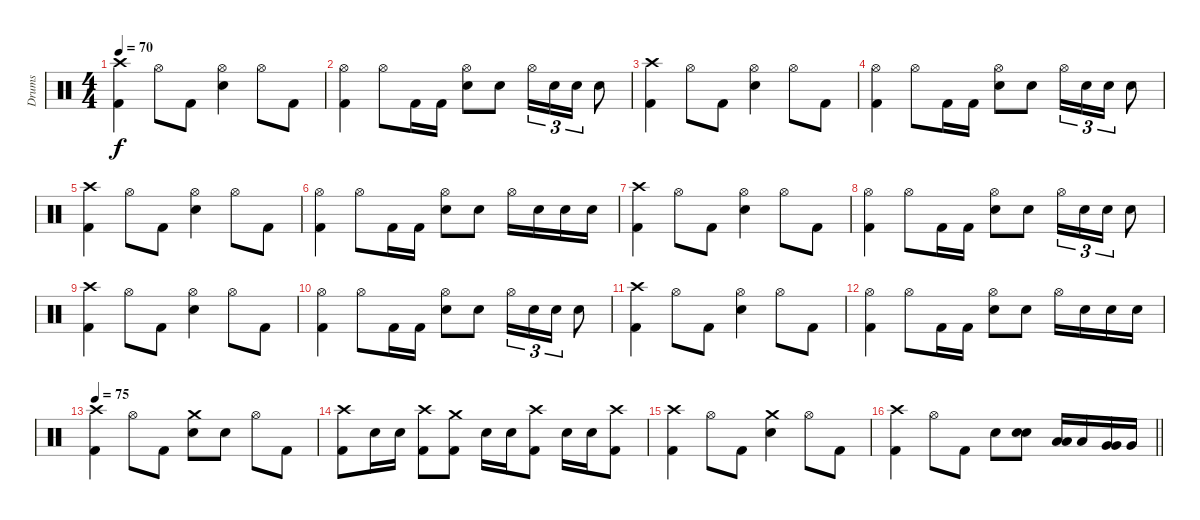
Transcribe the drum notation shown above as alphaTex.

\track ("Drums" "Drums") {instrument percussion}
\staff {score}
\articulation defaults
\ts (4 4)
\tempo 70
\clef neutral
\ks c
("Crash high (hit)" "Kick (hit) 2").4{dy f} "Hi-Hat (open)".8 "Kick (hit) 2".8 ("Hi-Hat (open)" "Electric Snare (hit)").4 "Hi-Hat (open)".8 "Kick (hit) 2".8 |
("Hi-Hat (open)" "Kick (hit) 2").4 "Hi-Hat (open)".8 "Kick (hit) 2".16 "Kick (hit) 2".16 ("Hi-Hat (open)" "Electric Snare (hit)").8 "Electric Snare (hit)".8 "Hi-Hat (open)".16{tu (3 2)} "Electric Snare (hit)".16{tu (3 2)} "Electric Snare (hit)".16{tu (3 2)} "Electric Snare (hit)".8 |
("Crash high (hit)" "Kick (hit) 2").4 "Hi-Hat (open)".8 "Kick (hit) 2".8 ("Hi-Hat (open)" "Electric Snare (hit)").4 "Hi-Hat (open)".8 "Kick (hit) 2".8 |
("Hi-Hat (open)" "Kick (hit) 2").4 "Hi-Hat (open)".8 "Kick (hit) 2".16 "Kick (hit) 2".16 ("Hi-Hat (open)" "Electric Snare (hit)").8 "Electric Snare (hit)".8 "Hi-Hat (open)".16{tu (3 2)} "Electric Snare (hit)".16{tu (3 2)} "Electric Snare (hit)".16{tu (3 2)} "Electric Snare (hit)".8 |
("Crash high (hit)" "Kick (hit) 2").4 "Hi-Hat (open)".8 "Kick (hit) 2".8 ("Hi-Hat (open)" "Electric Snare (hit)").4 "Hi-Hat (open)".8 "Kick (hit) 2".8 |
("Hi-Hat (open)" "Kick (hit) 2").4 "Hi-Hat (open)".8 "Kick (hit) 2".16 "Kick (hit) 2".16 ("Hi-Hat (open)" "Electric Snare (hit)").8 "Electric Snare (hit)".8 "Hi-Hat (open)".16 "Electric Snare (hit)".16 "Electric Snare (hit)".16 "Electric Snare (hit)".16 |
("Crash high (hit)" "Kick (hit) 2").4 "Hi-Hat (open)".8 "Kick (hit) 2".8 ("Hi-Hat (open)" "Electric Snare (hit)").4 "Hi-Hat (open)".8 "Kick (hit) 2".8 |
("Hi-Hat (open)" "Kick (hit) 2").4 "Hi-Hat (open)".8 "Kick (hit) 2".16 "Kick (hit) 2".16 ("Hi-Hat (open)" "Electric Snare (hit)").8 "Electric Snare (hit)".8 "Hi-Hat (open)".16{tu (3 2)} "Electric Snare (hit)".16{tu (3 2)} "Electric Snare (hit)".16{tu (3 2)} "Electric Snare (hit)".8 |
("Crash high (hit)" "Kick (hit) 2").4 "Hi-Hat (open)".8 "Kick (hit) 2".8 ("Hi-Hat (open)" "Electric Snare (hit)").4 "Hi-Hat (open)".8 "Kick (hit) 2".8 |
("Hi-Hat (open)" "Kick (hit) 2").4 "Hi-Hat (open)".8 "Kick (hit) 2".16 "Kick (hit) 2".16 ("Hi-Hat (open)" "Electric Snare (hit)").8 "Electric Snare (hit)".8 "Hi-Hat (open)".16{tu (3 2)} "Electric Snare (hit)".16{tu (3 2)} "Electric Snare (hit)".16{tu (3 2)} "Electric Snare (hit)".8 |
("Crash high (hit)" "Kick (hit) 2").4 "Hi-Hat (open)".8 "Kick (hit) 2".8 ("Hi-Hat (open)" "Electric Snare (hit)").4 "Hi-Hat (open)".8 "Kick (hit) 2".8 |
("Hi-Hat (open)" "Kick (hit) 2").4 "Hi-Hat (open)".8 "Kick (hit) 2".16 "Kick (hit) 2".16 ("Hi-Hat (open)" "Electric Snare (hit)").8 "Electric Snare (hit)".8 "Hi-Hat (open)".16 "Electric Snare (hit)".16 "Electric Snare (hit)".16 "Electric Snare (hit)".16 |
\tempo 75
("Crash high (hit)" "Kick (hit) 2").4 "Hi-Hat (open)".8 "Kick (hit) 2".8 ("Crash medium (hit)" "Electric Snare (hit)").8 "Electric Snare (hit)".8 "Hi-Hat (open)".8 "Kick (hit) 2".8 |
("Crash high (hit)" "Kick (hit) 2").8 "Electric Snare (hit)".16 "Electric Snare (hit)".16 ("Crash high (hit)" "Kick (hit) 2").8 ("Crash medium (hit)" "Kick (hit) 2").8 "Electric Snare (hit)".16 "Electric Snare (hit)".16 ("Crash high (hit)" "Kick (hit) 2").8 "Electric Snare (hit)".16 "Electric Snare (hit)".16 ("Crash high (hit)" "Kick (hit) 2").8 |
("Crash high (hit)" "Kick (hit) 2").4 "Hi-Hat (open)".8 "Kick (hit) 2".8 ("Crash medium (hit)" "Electric Snare (hit)").4 "Hi-Hat (open)".8 "Kick (hit) 2".8 |
\barLineRight lightlight
("Crash high (hit)" "Kick (hit) 2").4 "Hi-Hat (open)".8 "Kick (hit) 2".8 "Electric Snare (hit)".8 ("Electric Snare (hit)" "Electric Snare (hit)").8{bu 60} ("Low Tom (hit)" "Low Tom (hit)").16{bu 60} "Low Tom (hit)".16 ("Very Low Tom (hit)" "Very Low Tom (hit)").16{bu 60} "Very Low Tom (hit)".16
